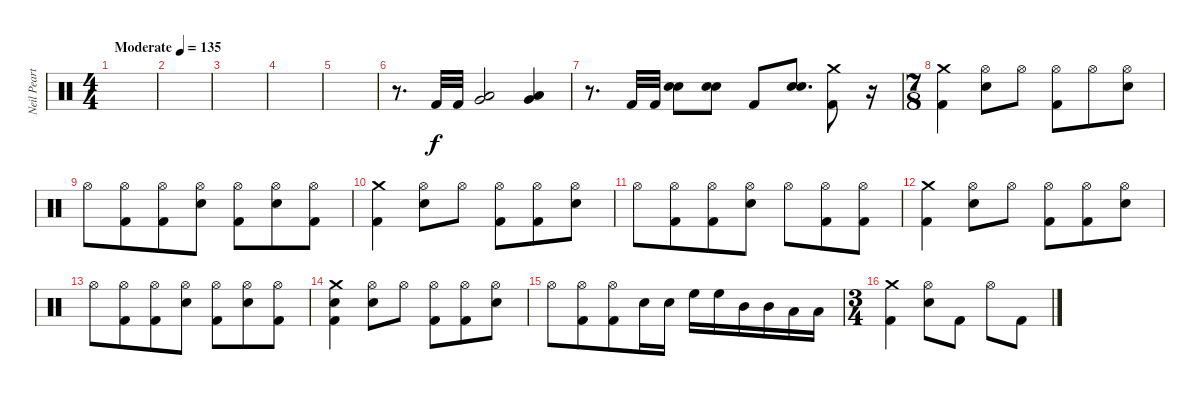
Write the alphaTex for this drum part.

\track ("Neil Peart" "Neil Peart") {instrument percussion}
\staff {score}
\articulation defaults
\ts (4 4)
\tempo (135 "Moderate")
\clef neutral
\ks c
|
|
|
|
|
r.8{d} "Kick (hit) 2".32 "Kick (hit) 2".32 ("Very Low Tom (hit)" "Low Tom (hit)").2 ("Very Low Tom (hit)" "Low Tom (hit)").4 |
r.8{d} "Kick (hit) 2".32 "Kick (hit) 2".32 ("Snare (hit) 2" "Snare (hit) 2").8 ("Snare (hit) 2" "Snare (hit) 2").8 "Kick (hit) 2".8 ("Snare (hit) 2" "Snare (hit) 2").8{d} ("Crash medium (hit)" "Kick (hit) 2").8 r.16{volume 0} |
\ts (7 8)
("Crash medium (hit)" "Kick (hit) 2").4{volume 14} ("Hi-Hat (open)" "Snare (hit) 2").8 "Hi-Hat (open)".8 ("Hi-Hat (open)" "Kick (hit) 2").8 "Hi-Hat (open)".8 ("Hi-Hat (open)" "Snare (hit) 2").8 |
"Hi-Hat (open)".8 ("Hi-Hat (open)" "Kick (hit) 2").8 ("Hi-Hat (open)" "Kick (hit) 2").8 ("Hi-Hat (open)" "Snare (hit) 2").8 ("Hi-Hat (open)" "Kick (hit) 2").8 ("Hi-Hat (open)" "Snare (hit) 2").8 ("Hi-Hat (open)" "Kick (hit) 2").8 |
("Crash medium (hit)" "Kick (hit) 2").4 ("Hi-Hat (open)" "Snare (hit) 2").8 "Hi-Hat (open)".8 ("Hi-Hat (open)" "Kick (hit) 2").8 ("Hi-Hat (open)" "Kick (hit) 2").8 ("Hi-Hat (open)" "Snare (hit) 2").8 |
"Hi-Hat (open)".8 ("Hi-Hat (open)" "Kick (hit) 2").8 ("Hi-Hat (open)" "Kick (hit) 2").8 ("Hi-Hat (open)" "Snare (hit) 2").8 "Hi-Hat (open)".8 ("Hi-Hat (open)" "Kick (hit) 2").8 ("Hi-Hat (open)" "Kick (hit) 2").8 |
("Crash medium (hit)" "Kick (hit) 2").4 ("Hi-Hat (open)" "Snare (hit) 2").8 "Hi-Hat (open)".8 ("Hi-Hat (open)" "Kick (hit) 2").8 ("Hi-Hat (open)" "Kick (hit) 2").8 ("Hi-Hat (open)" "Snare (hit) 2").8 |
"Hi-Hat (open)".8 ("Hi-Hat (open)" "Kick (hit) 2").8 ("Hi-Hat (open)" "Kick (hit) 2").8 ("Hi-Hat (open)" "Snare (hit) 2").8 ("Hi-Hat (open)" "Kick (hit) 2").8 ("Hi-Hat (open)" "Snare (hit) 2").8 ("Hi-Hat (open)" "Kick (hit) 2").8 |
("Crash medium (hit)" "Snare (hit) 2" "Kick (hit) 2").4 ("Hi-Hat (open)" "Snare (hit) 2").8 "Hi-Hat (open)".8 ("Hi-Hat (open)" "Kick (hit) 2").8 ("Hi-Hat (open)" "Kick (hit) 2").8 ("Hi-Hat (open)" "Snare (hit) 2").8 |
"Hi-Hat (open)".8 ("Hi-Hat (open)" "Kick (hit) 2").8 ("Hi-Hat (open)" "Kick (hit) 2").8 "Snare (hit) 2".16 "Snare (hit) 2".16 "High Floor Tom (hit)".16 "High Floor Tom (hit)".16 "Mid Tom (hit)".16 "Mid Tom (hit)".16 "Low Tom (hit)".16 "Low Tom (hit)".16 |
\ts (3 4)
("Crash medium (hit)" "Kick (hit) 2").4 ("Hi-Hat (open)" "Snare (hit) 2").8 "Kick (hit) 2".8 "Hi-Hat (open)".8 "Kick (hit) 2".8
